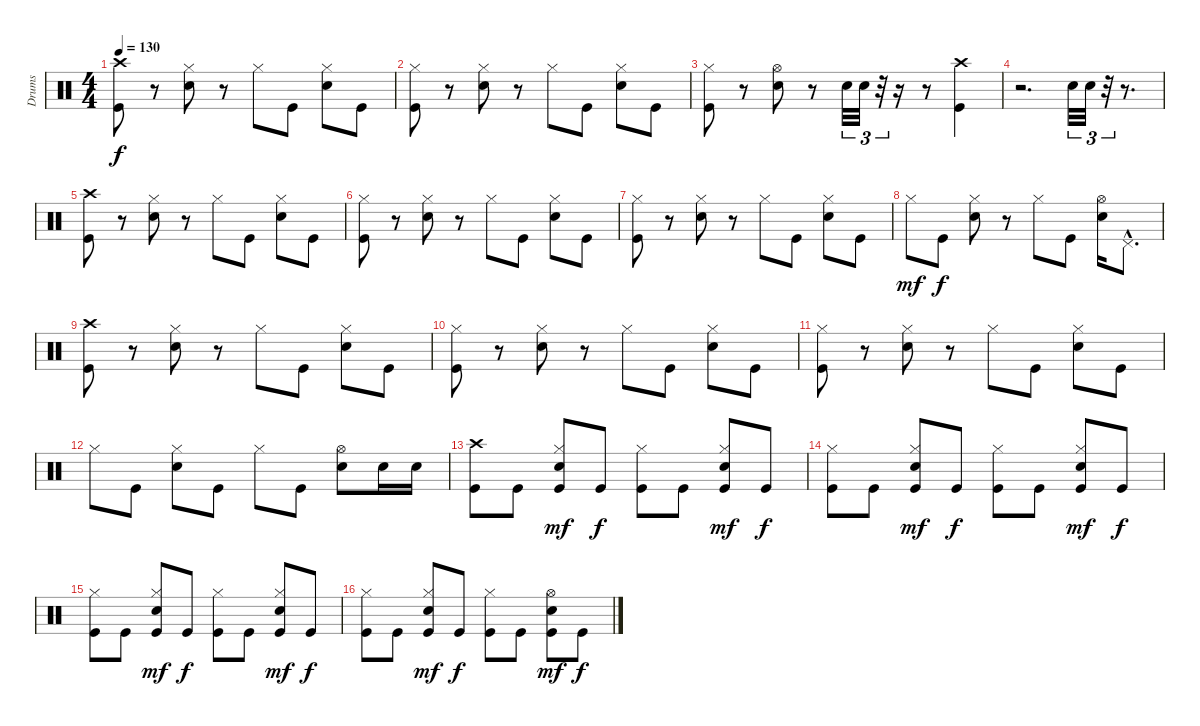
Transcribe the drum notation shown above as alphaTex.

\track ("Drums" "Drums") {instrument percussion}
\staff {score}
\articulation defaults
\ts (4 4)
\tempo 130
\clef neutral
\ks c
("Crash high (hit)" "Kick (hit)").8{dy f} r.8 ("Hi-Hat (closed)" "Snare (hit) 2").8 r.8 "Hi-Hat (closed)".8 "Kick (hit)".8 ("Hi-Hat (closed)" "Snare (hit) 2").8 "Kick (hit)".8 |
("Hi-Hat (closed)" "Kick (hit)").8 r.8 ("Hi-Hat (closed)" "Snare (hit) 2").8 r.8 "Hi-Hat (closed)".8 "Kick (hit)".8 ("Hi-Hat (closed)" "Snare (hit) 2").8 "Kick (hit)".8 |
("Hi-Hat (closed)" "Kick (hit)").8 r.8 ("Hi-Hat (open)" "Snare (hit) 2").8 r.8 "Snare (hit) 2".32{tu (3 2)} "Snare (hit) 2".32{tu (3 2)} r.32{tu (3 2)} r.16 r.8 ("Crash high (hit)" "Kick (hit)").4 |
r.2{d} "Snare (hit) 2".32{tu (3 2)} "Snare (hit) 2".32{tu (3 2)} r.32{tu (3 2)} r.8{d} |
("Crash high (hit)" "Kick (hit)").8 r.8 ("Hi-Hat (closed)" "Snare (hit) 2").8 r.8 "Hi-Hat (closed)".8 "Kick (hit)".8 ("Hi-Hat (closed)" "Snare (hit) 2").8 "Kick (hit)".8 |
("Hi-Hat (closed)" "Kick (hit)").8 r.8 ("Hi-Hat (closed)" "Snare (hit) 2").8 r.8 "Hi-Hat (closed)".8 "Kick (hit)".8 ("Hi-Hat (closed)" "Snare (hit) 2").8 "Kick (hit)".8 |
("Hi-Hat (closed)" "Kick (hit)").8 r.8 ("Hi-Hat (closed)" "Snare (hit) 2").8 r.8 "Hi-Hat (closed)".8 "Kick (hit)".8 ("Hi-Hat (closed)" "Snare (hit) 2").8 "Kick (hit)".8 |
"Hi-Hat (closed)".8{dy mf} "Kick (hit)".8{dy f} ("Hi-Hat (closed)" "Snare (hit) 2").8 r.8 "Hi-Hat (closed)".8 "Kick (hit)".8 ("Hi-Hat (open)" "Snare (hit) 2").16 "Pedal Hi-Hat (hit)"{hac}.8{d} |
("Crash high (hit)" "Kick (hit)").8 r.8 ("Hi-Hat (closed)" "Snare (hit) 2").8 r.8 "Hi-Hat (closed)".8 "Kick (hit)".8 ("Hi-Hat (closed)" "Snare (hit) 2").8 "Kick (hit)".8 |
("Hi-Hat (closed)" "Kick (hit)").8 r.8 ("Hi-Hat (closed)" "Snare (hit) 2").8 r.8 "Hi-Hat (closed)".8 "Kick (hit)".8 ("Hi-Hat (closed)" "Snare (hit) 2").8 "Kick (hit)".8 |
("Hi-Hat (closed)" "Kick (hit)").8 r.8 ("Hi-Hat (closed)" "Snare (hit) 2").8 r.8 "Hi-Hat (closed)".8 "Kick (hit)".8 ("Hi-Hat (closed)" "Snare (hit) 2").8 "Kick (hit)".8 |
"Hi-Hat (closed)".8 "Kick (hit)".8 ("Hi-Hat (closed)" "Snare (hit) 2").8 "Kick (hit)".8 "Hi-Hat (closed)".8 "Kick (hit)".8 ("Hi-Hat (open)" "Snare (hit) 2").8 "Snare (hit) 2".16 "Snare (hit) 2".16 |
("Crash high (hit)" "Kick (hit)").8 "Kick (hit)".8 ("Hi-Hat (closed)" "Snare (hit) 2" "Kick (hit)").8{dy mf} "Kick (hit)".8{dy f} ("Hi-Hat (closed)" "Kick (hit)").8 "Kick (hit)".8 ("Hi-Hat (closed)" "Snare (hit) 2" "Kick (hit)").8{dy mf} "Kick (hit)".8{dy f} |
("Hi-Hat (closed)" "Kick (hit)").8 "Kick (hit)".8 ("Hi-Hat (closed)" "Snare (hit) 2" "Kick (hit)").8{dy mf} "Kick (hit)".8{dy f} ("Hi-Hat (closed)" "Kick (hit)").8 "Kick (hit)".8 ("Hi-Hat (closed)" "Snare (hit) 2" "Kick (hit)").8{dy mf} "Kick (hit)".8{dy f} |
("Hi-Hat (closed)" "Kick (hit)").8 "Kick (hit)".8 ("Hi-Hat (closed)" "Snare (hit) 2" "Kick (hit)").8{dy mf} "Kick (hit)".8{dy f} ("Hi-Hat (closed)" "Kick (hit)").8 "Kick (hit)".8 ("Hi-Hat (closed)" "Snare (hit) 2" "Kick (hit)").8{dy mf} "Kick (hit)".8{dy f} |
("Hi-Hat (closed)" "Kick (hit)").8 "Kick (hit)".8 ("Hi-Hat (closed)" "Snare (hit) 2" "Kick (hit)").8{dy mf} "Kick (hit)".8{dy f} ("Hi-Hat (closed)" "Kick (hit)").8 "Kick (hit)".8 ("Hi-Hat (open)" "Snare (hit) 2" "Kick (hit)").8{dy mf} "Kick (hit)".8{dy f}
